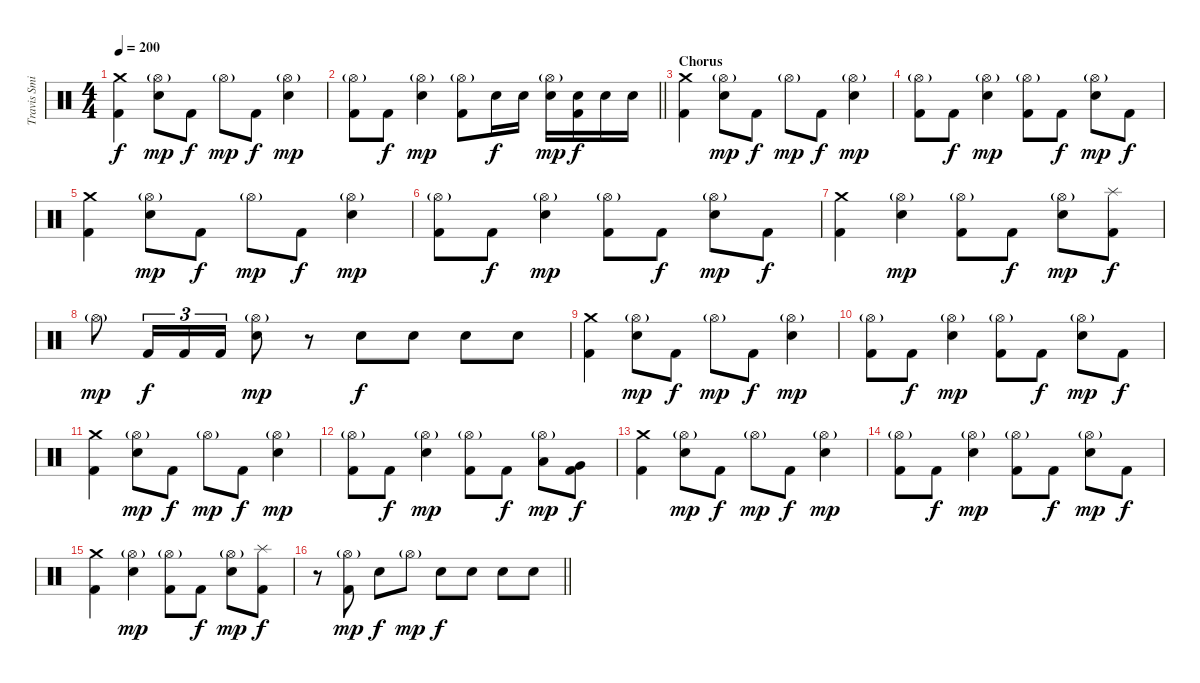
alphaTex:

\track ("Travis Smith" "Travis Smi") {instrument percussion}
\staff {score}
\articulation defaults
\ts (4 4)
\tempo 200
\clef neutral
\ks c
("Crash medium (hit)" "Kick (hit) 2").4{dy f volume 10} ("Hi-Hat (open)"{g} "Electric Snare (hit)").8{dy mp} "Kick (hit) 2".8{dy f} "Hi-Hat (open)"{g}.8{dy mp} "Kick (hit) 2".8{dy f} ("Hi-Hat (open)"{g} "Electric Snare (hit)").4{dy mp} |
\barLineRight lightlight
("Hi-Hat (open)"{g} "Kick (hit) 2").8 "Kick (hit) 2".8{dy f} ("Hi-Hat (open)"{g} "Electric Snare (hit)").4{dy mp} ("Hi-Hat (open)"{g} "Kick (hit) 2").8 "Electric Snare (hit)".16{dy f} "Electric Snare (hit)".16 ("Hi-Hat (open)"{g} "Electric Snare (hit)").16{dy mp} ("Electric Snare (hit)" "Kick (hit) 2").16{dy f} "Electric Snare (hit)".16 "Electric Snare (hit)".16 |
\section ("" "Chorus")
("Crash medium (hit)" "Kick (hit) 2").4{volume 16 balance 8} ("Hi-Hat (open)"{g} "Electric Snare (hit)").8{dy mp} "Kick (hit) 2".8{dy f} "Hi-Hat (open)"{g}.8{dy mp} "Kick (hit) 2".8{dy f} ("Hi-Hat (open)"{g} "Electric Snare (hit)").4{dy mp} |
("Hi-Hat (open)"{g} "Kick (hit) 2").8 "Kick (hit) 2".8{dy f} ("Hi-Hat (open)"{g} "Electric Snare (hit)").4{dy mp} ("Hi-Hat (open)"{g} "Kick (hit) 2").8 "Kick (hit) 2".8{dy f} ("Hi-Hat (open)"{g} "Electric Snare (hit)").8{dy mp} "Kick (hit) 2".8{dy f} |
("Crash medium (hit)" "Kick (hit) 2").4 ("Hi-Hat (open)"{g} "Electric Snare (hit)").8{dy mp} "Kick (hit) 2".8{dy f} "Hi-Hat (open)"{g}.8{dy mp} "Kick (hit) 2".8{dy f} ("Hi-Hat (open)"{g} "Electric Snare (hit)").4{dy mp} |
("Hi-Hat (open)"{g} "Kick (hit) 2").8 "Kick (hit) 2".8{dy f} ("Hi-Hat (open)"{g} "Electric Snare (hit)").4{dy mp} ("Hi-Hat (open)"{g} "Kick (hit) 2").8 "Kick (hit) 2".8{dy f} ("Hi-Hat (open)"{g} "Electric Snare (hit)").8{dy mp} "Kick (hit) 2".8{dy f} |
("Crash medium (hit)" "Kick (hit) 2").4 ("Hi-Hat (open)"{g} "Electric Snare (hit)").4{dy mp} ("Hi-Hat (open)"{g} "Kick (hit) 2").8 "Kick (hit) 2".8{dy f} ("Hi-Hat (open)"{g} "Electric Snare (hit)").8{dy mp} ("Splash (hit)" "Kick (hit) 2").8{dy f} |
"Hi-Hat (open)"{g}.8{dy mp} "Kick (hit) 2".16{tu (3 2) dy f} "Kick (hit) 2".16{tu (3 2)} "Kick (hit) 2".16{tu (3 2)} ("Hi-Hat (open)"{g} "Electric Snare (hit)").8{dy mp} r.8 "Electric Snare (hit)".8{dy f} "Electric Snare (hit)".8 "Electric Snare (hit)".8 "Electric Snare (hit)".8 |
("Crash medium (hit)" "Kick (hit) 2").4 ("Hi-Hat (open)"{g} "Electric Snare (hit)").8{dy mp} "Kick (hit) 2".8{dy f} "Hi-Hat (open)"{g}.8{dy mp} "Kick (hit) 2".8{dy f} ("Hi-Hat (open)"{g} "Electric Snare (hit)").4{dy mp} |
("Hi-Hat (open)"{g} "Kick (hit) 2").8 "Kick (hit) 2".8{dy f} ("Hi-Hat (open)"{g} "Electric Snare (hit)").4{dy mp} ("Hi-Hat (open)"{g} "Kick (hit) 2").8 "Kick (hit) 2".8{dy f} ("Hi-Hat (open)"{g} "Electric Snare (hit)").8{dy mp} "Kick (hit) 2".8{dy f} |
("Crash medium (hit)" "Kick (hit) 2").4 ("Hi-Hat (open)"{g} "Electric Snare (hit)").8{dy mp} "Kick (hit) 2".8{dy f} "Hi-Hat (open)"{g}.8{dy mp} "Kick (hit) 2".8{dy f} ("Hi-Hat (open)"{g} "Electric Snare (hit)").4{dy mp} |
("Hi-Hat (open)"{g} "Kick (hit) 2").8 "Kick (hit) 2".8{dy f} ("Hi-Hat (open)"{g} "Electric Snare (hit)").4{dy mp} ("Hi-Hat (open)"{g} "Kick (hit) 2").8 "Kick (hit) 2".8{dy f} ("Hi-Hat (open)"{g} "Low Tom (hit)").8{dy mp} ("Very Low Tom (hit)" "Kick (hit) 2").8{dy f} |
("Crash medium (hit)" "Kick (hit) 2").4 ("Hi-Hat (open)"{g} "Electric Snare (hit)").8{dy mp} "Kick (hit) 2".8{dy f} "Hi-Hat (open)"{g}.8{dy mp} "Kick (hit) 2".8{dy f} ("Hi-Hat (open)"{g} "Electric Snare (hit)").4{dy mp} |
("Hi-Hat (open)"{g} "Kick (hit) 2").8 "Kick (hit) 2".8{dy f} ("Hi-Hat (open)"{g} "Electric Snare (hit)").4{dy mp} ("Hi-Hat (open)"{g} "Kick (hit) 2").8 "Kick (hit) 2".8{dy f} ("Hi-Hat (open)"{g} "Electric Snare (hit)").8{dy mp} "Kick (hit) 2".8{dy f} |
("Crash medium (hit)" "Kick (hit) 2").4 ("Hi-Hat (open)"{g} "Electric Snare (hit)").4{dy mp} ("Hi-Hat (open)"{g} "Kick (hit) 2").8 "Kick (hit) 2".8{dy f} ("Hi-Hat (open)"{g} "Electric Snare (hit)").8{dy mp} ("Splash (hit)" "Kick (hit) 2").8{dy f} |
\barLineRight lightlight
r.8 ("Hi-Hat (open)"{g} "Kick (hit) 2").8{dy mp} "Electric Snare (hit)".8{dy f} "Hi-Hat (open)"{g}.8{dy mp} "Electric Snare (hit)".8{dy f} "Electric Snare (hit)".8 "Electric Snare (hit)".8 "Electric Snare (hit)".8
